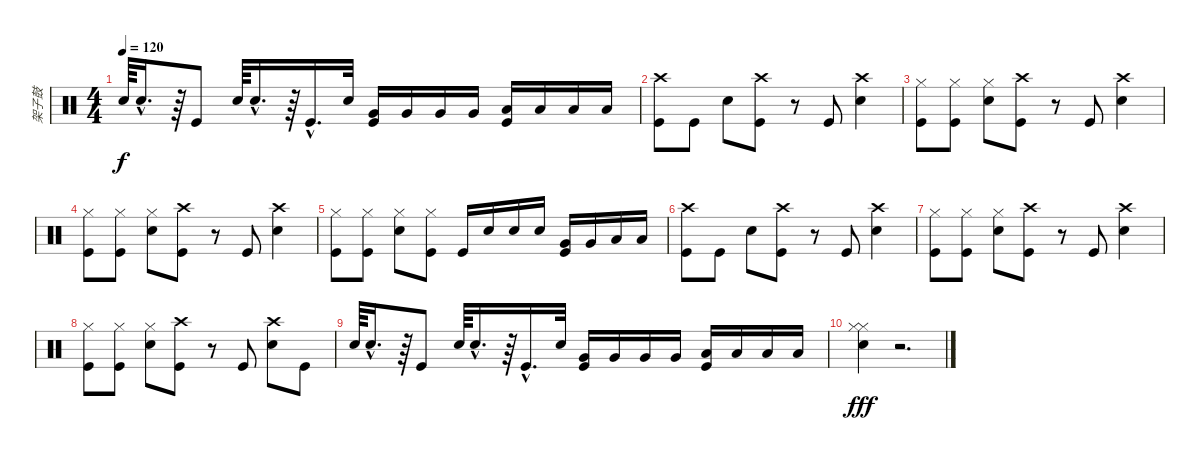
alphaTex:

\track ("架子鼓" "架子鼓") {instrument percussion}
\staff {score}
\articulation defaults
\ts (4 4)
\tempo 120
\clef neutral
\ks c "Snare (hit) 2".64{dy f} "Snare (hit) 2"{hac}.16{d}
r.64 "Kick (hit)".8 "Snare (hit) 2".64 "Snare (hit) 2"{hac}.16{d} r.64 "Kick (hit)"{hac}.16{d} "Snare (hit) 2".32 ("Kick (hit)" "Very Low Tom (hit)").16 "Very Low Tom (hit)".16 "Very Low Tom (hit)".16 "Very Low Tom (hit)".16 ("Kick (hit)" "Low Floor Tom (hit)").16 "Low Floor Tom (hit)".16 "Low Floor Tom (hit)".16 "Low Floor Tom (hit)".16 |
("Crash high (hit)" "Kick (hit)").8 "Kick (hit)".8 "Snare (hit) 2".8 ("Crash high (hit)" "Kick (hit)").8 r.8 "Kick (hit)".8 ("Crash high (hit)" "Snare (hit) 2").4 |
("Hi-Hat (closed)" "Kick (hit)").8 ("Hi-Hat (closed)" "Kick (hit)").8 ("Hi-Hat (closed)" "Snare (hit) 2").8 ("Crash high (hit)" "Kick (hit)").8 r.8 "Kick (hit)".8 ("Crash high (hit)" "Snare (hit) 2").4 |
("Hi-Hat (closed)" "Kick (hit)").8 ("Hi-Hat (closed)" "Kick (hit)").8 ("Hi-Hat (closed)" "Snare (hit) 2").8 ("Crash high (hit)" "Kick (hit)").8 r.8 "Kick (hit)".8 ("Crash high (hit)" "Snare (hit) 2").4 |
("Hi-Hat (closed)" "Kick (hit)").8 ("Hi-Hat (closed)" "Kick (hit)").8 ("Hi-Hat (closed)" "Snare (hit) 2").8 ("Hi-Hat (closed)" "Kick (hit)").8 "Kick (hit)".16 "Snare (hit) 2".16 "Snare (hit) 2".16 "Snare (hit) 2".16 ("Kick (hit)" "Very Low Tom (hit)").16 "Very Low Tom (hit)".16 "Low Floor Tom (hit)".16 "Low Floor Tom (hit)".16 |
("Crash high (hit)" "Kick (hit)").8 "Kick (hit)".8 "Snare (hit) 2".8 ("Crash high (hit)" "Kick (hit)").8 r.8 "Kick (hit)".8 ("Crash high (hit)" "Snare (hit) 2").4 |
("Hi-Hat (closed)" "Kick (hit)").8 ("Hi-Hat (closed)" "Kick (hit)").8 ("Hi-Hat (closed)" "Snare (hit) 2").8 ("Crash high (hit)" "Kick (hit)").8 r.8 "Kick (hit)".8 ("Crash high (hit)" "Snare (hit) 2").4 |
("Hi-Hat (closed)" "Kick (hit)").8 ("Hi-Hat (closed)" "Kick (hit)").8 ("Hi-Hat (closed)" "Snare (hit) 2").8 ("Crash high (hit)" "Kick (hit)").8 r.8 "Kick (hit)".8 ("Crash high (hit)" "Snare (hit) 2").8 "Kick (hit)".8 |
"Snare (hit) 2".64 "Snare (hit) 2"{hac}.16{d} r.64 "Kick (hit)".8 "Snare (hit) 2".64 "Snare (hit) 2"{hac}.16{d} r.64 "Kick (hit)"{hac}.16{d} "Snare (hit) 2".32 ("Kick (hit)" "Very Low Tom (hit)").16 "Very Low Tom (hit)".16 "Very Low Tom (hit)".16 "Very Low Tom (hit)".16 ("Kick (hit)" "Low Floor Tom (hit)").16 "Low Floor Tom (hit)".16 "Low Floor Tom (hit)".16 "Low Floor Tom (hit)".16 |
("Hi-Hat (closed)" "Hi-Hat (closed)" "Snare (hit) 2").4{dy fff} r.2{d}
